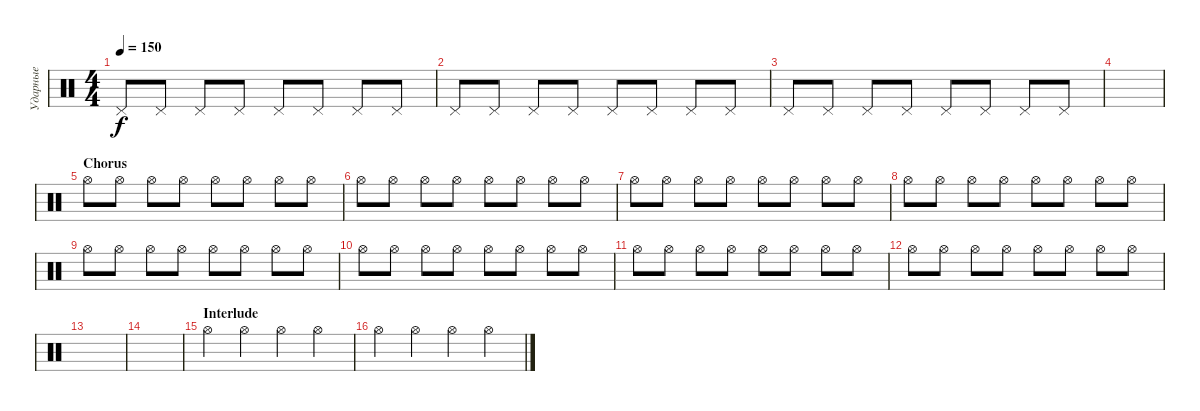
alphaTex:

\track ("Ударные" "Ударные") {instrument percussion}
\staff {score}
\articulation defaults
\ts (4 4)
\tempo 150
\clef neutral
\ks c "Pedal Hi-Hat (hit)".8{dy f} "Pedal Hi-Hat (hit)".8 "Pedal Hi-Hat (hit)".8 "Pedal Hi-Hat (hit)".8 "Pedal Hi-Hat (hit)".8 "Pedal Hi-Hat (hit)".8 "Pedal Hi-Hat (hit)".8 "Pedal Hi-Hat (hit)".8
|
"Pedal Hi-Hat (hit)".8 "Pedal Hi-Hat (hit)".8 "Pedal Hi-Hat (hit)".8 "Pedal Hi-Hat (hit)".8 "Pedal Hi-Hat (hit)".8 "Pedal Hi-Hat (hit)".8 "Pedal Hi-Hat (hit)".8 "Pedal Hi-Hat (hit)".8 |
"Pedal Hi-Hat (hit)".8 "Pedal Hi-Hat (hit)".8 "Pedal Hi-Hat (hit)".8 "Pedal Hi-Hat (hit)".8 "Pedal Hi-Hat (hit)".8 "Pedal Hi-Hat (hit)".8 "Pedal Hi-Hat (hit)".8 "Pedal Hi-Hat (hit)".8 |
|
\section ("" "Chorus")
"Hi-Hat (open)".8 "Hi-Hat (open)".8 "Hi-Hat (open)".8 "Hi-Hat (open)".8 "Hi-Hat (open)".8 "Hi-Hat (open)".8 "Hi-Hat (open)".8 "Hi-Hat (open)".8 |
"Hi-Hat (open)".8 "Hi-Hat (open)".8 "Hi-Hat (open)".8 "Hi-Hat (open)".8 "Hi-Hat (open)".8 "Hi-Hat (open)".8 "Hi-Hat (open)".8 "Hi-Hat (open)".8 |
"Hi-Hat (open)".8 "Hi-Hat (open)".8 "Hi-Hat (open)".8 "Hi-Hat (open)".8 "Hi-Hat (open)".8 "Hi-Hat (open)".8 "Hi-Hat (open)".8 "Hi-Hat (open)".8 |
"Hi-Hat (open)".8 "Hi-Hat (open)".8 "Hi-Hat (open)".8 "Hi-Hat (open)".8 "Hi-Hat (open)".8 "Hi-Hat (open)".8 "Hi-Hat (open)".8 "Hi-Hat (open)".8 |
"Hi-Hat (open)".8 "Hi-Hat (open)".8 "Hi-Hat (open)".8 "Hi-Hat (open)".8 "Hi-Hat (open)".8 "Hi-Hat (open)".8 "Hi-Hat (open)".8 "Hi-Hat (open)".8 |
"Hi-Hat (open)".8 "Hi-Hat (open)".8 "Hi-Hat (open)".8 "Hi-Hat (open)".8 "Hi-Hat (open)".8 "Hi-Hat (open)".8 "Hi-Hat (open)".8 "Hi-Hat (open)".8 |
"Hi-Hat (open)".8 "Hi-Hat (open)".8 "Hi-Hat (open)".8 "Hi-Hat (open)".8 "Hi-Hat (open)".8 "Hi-Hat (open)".8 "Hi-Hat (open)".8 "Hi-Hat (open)".8 |
"Hi-Hat (open)".8 "Hi-Hat (open)".8 "Hi-Hat (open)".8 "Hi-Hat (open)".8 "Hi-Hat (open)".8 "Hi-Hat (open)".8 "Hi-Hat (open)".8 "Hi-Hat (open)".8 |
|
|
\section ("" "Interlude")
"Hi-Hat (open)".4 "Hi-Hat (open)".4 "Hi-Hat (open)".4 "Hi-Hat (open)".4 |
"Hi-Hat (open)".4 "Hi-Hat (open)".4 "Hi-Hat (open)".4 "Hi-Hat (open)".4
